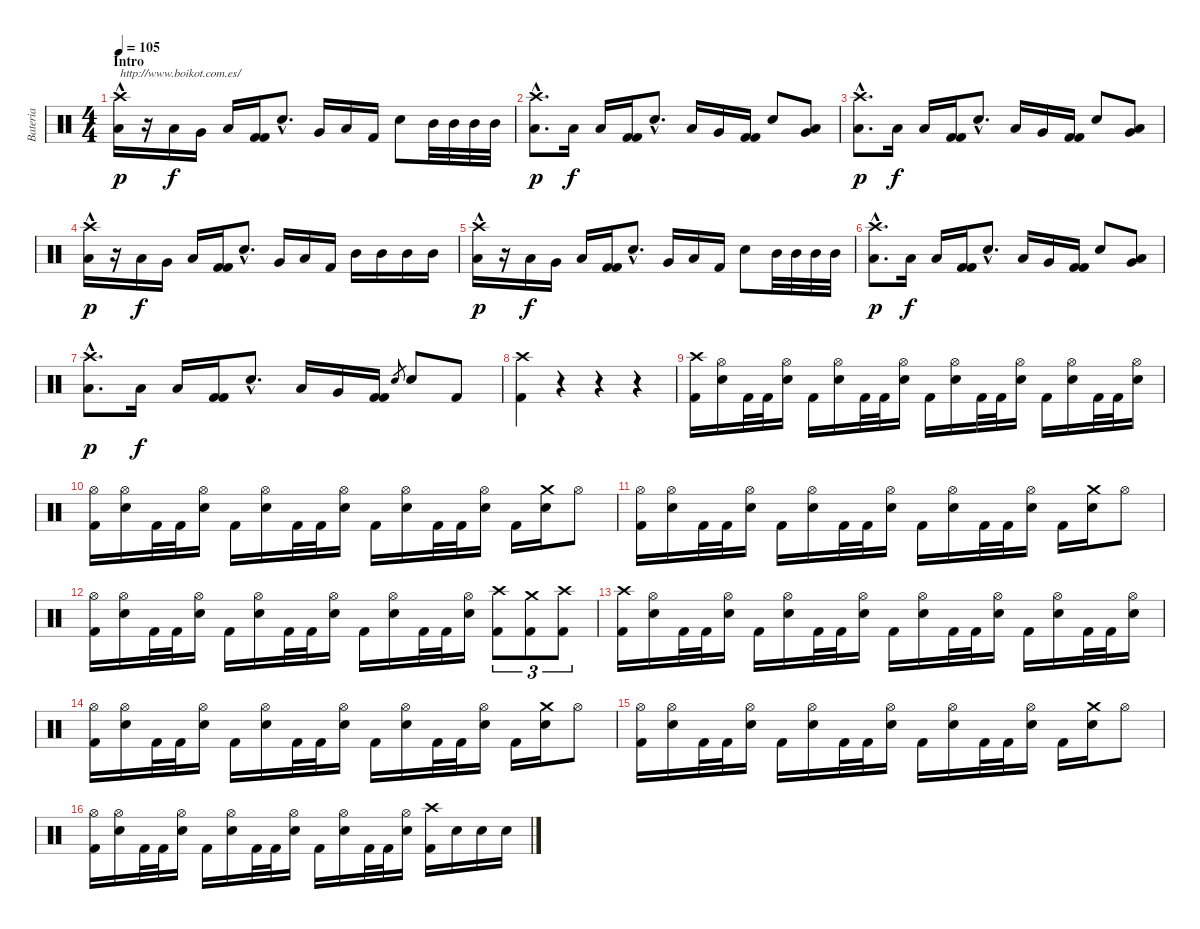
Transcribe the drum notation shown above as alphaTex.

\track ("Bateria" "Bateria") {instrument percussion}
\staff {score}
\articulation defaults
\ts (4 4)
\section ("" "Intro")
\tempo 105
\clef neutral
\ks c
("Low Floor Tom (hit)"{hac} "Crash high (hit)").16{txt "http://www.boikot.com.es/" dy p} r.16 "Low Tom (hit)".16{dy f} "Very Low Tom (hit)".16 "Low Floor Tom (hit)".16 ("Kick (hit) 2" "Kick (hit) 2").16 "Electric Snare (hit)"{hac}.8{d} "Very Low Tom (hit)".16 "Low Floor Tom (hit)".16 "Kick (hit) 2".16 "Electric Snare (hit)".8 "Mid Tom (hit)".32 "Mid Tom (hit)".32 "Mid Tom (hit)".32 "Mid Tom (hit)".32 |
("Low Floor Tom (hit)"{hac} "Crash high (hit)"{hac}).8{d dy p} "Low Tom (hit)".16{dy f} "Low Floor Tom (hit)".16 ("Kick (hit) 2" "Kick (hit) 2").16 "Electric Snare (hit)"{hac}.8{d} "Low Tom (hit)".16 "Very Low Tom (hit)".16 ("Kick (hit) 2" "Kick (hit) 2").16 "Electric Snare (hit)".8 ("Low Tom (hit)" "Very Low Tom (hit)").8 |
("Low Floor Tom (hit)"{hac} "Crash high (hit)"{hac}).8{d dy p} "Low Tom (hit)".16{dy f} "Low Floor Tom (hit)".16 ("Kick (hit) 2" "Kick (hit) 2").16 "Electric Snare (hit)"{hac}.8{d} "Low Tom (hit)".16 "Very Low Tom (hit)".16 ("Kick (hit) 2" "Kick (hit) 2").16 "Electric Snare (hit)".8 ("Very Low Tom (hit)" "Low Tom (hit)").8 |
("Low Floor Tom (hit)"{hac} "Crash high (hit)").16{dy p} r.16 "Low Tom (hit)".16{dy f} "Very Low Tom (hit)".16 "Low Floor Tom (hit)".16 ("Kick (hit) 2" "Kick (hit) 2").16 "Electric Snare (hit)"{hac}.8{d} "Very Low Tom (hit)".16 "Low Floor Tom (hit)".16 "Kick (hit) 2".16 "Mid Tom (hit)".16 "Mid Tom (hit)".16 "Mid Tom (hit)".16 "Mid Tom (hit)".16 |
("Low Floor Tom (hit)"{hac} "Crash high (hit)").16{dy p} r.16 "Low Tom (hit)".16{dy f} "Very Low Tom (hit)".16 "Low Floor Tom (hit)".16 ("Kick (hit) 2" "Kick (hit) 2").16 "Electric Snare (hit)"{hac}.8{d} "Very Low Tom (hit)".16 "Low Floor Tom (hit)".16 "Kick (hit) 2".16 "Electric Snare (hit)".8 "Mid Tom (hit)".32 "Mid Tom (hit)".32 "Mid Tom (hit)".32 "Mid Tom (hit)".32 |
("Low Floor Tom (hit)"{hac} "Crash high (hit)"{hac}).8{d dy p} "Low Tom (hit)".16{dy f} "Low Floor Tom (hit)".16 ("Kick (hit) 2" "Kick (hit) 2").16 "Electric Snare (hit)"{hac}.8{d} "Low Tom (hit)".16 "Very Low Tom (hit)".16 ("Kick (hit) 2" "Kick (hit) 2").16 "Electric Snare (hit)".8 ("Low Tom (hit)" "Very Low Tom (hit)").8 |
("Low Floor Tom (hit)"{hac} "Crash high (hit)"{hac}).8{d dy p} "Low Tom (hit)".16{dy f} "Low Floor Tom (hit)".16 ("Kick (hit) 2" "Kick (hit) 2").16 "Electric Snare (hit)"{hac}.8{d} "Low Tom (hit)".16 "Very Low Tom (hit)".16 ("Kick (hit) 2" "Kick (hit) 2").16 "Electric Snare (hit)".8{gr} "Electric Snare (hit)".8 "Kick (hit) 2".8 |
("Crash high (hit)" "Kick (hit) 2").4 r.4 r.4 r.4 |
("Crash high (hit)" "Kick (hit) 2").16 ("Hi-Hat (open)" "Electric Snare (hit)").16 "Kick (hit) 2".32 "Kick (hit) 2".32 ("Hi-Hat (open)" "Electric Snare (hit)").16 "Kick (hit) 2".16 ("Hi-Hat (open)" "Electric Snare (hit)").16 "Kick (hit) 2".32 "Kick (hit) 2".32 ("Hi-Hat (open)" "Electric Snare (hit)").16 "Kick (hit) 2".16 ("Hi-Hat (open)" "Electric Snare (hit)").16 "Kick (hit) 2".32 "Kick (hit) 2".32 ("Hi-Hat (open)" "Electric Snare (hit)").16 "Kick (hit) 2".16 ("Hi-Hat (open)" "Electric Snare (hit)").16 "Kick (hit) 2".32 "Kick (hit) 2".32 ("Hi-Hat (open)" "Electric Snare (hit)").16 |
("Hi-Hat (open)" "Kick (hit) 2").16 ("Hi-Hat (open)" "Electric Snare (hit)").16 "Kick (hit) 2".32 "Kick (hit) 2".32 ("Hi-Hat (open)" "Electric Snare (hit)").16 "Kick (hit) 2".16 ("Hi-Hat (open)" "Electric Snare (hit)").16 "Kick (hit) 2".32 "Kick (hit) 2".32 ("Hi-Hat (open)" "Electric Snare (hit)").16 "Kick (hit) 2".16 ("Hi-Hat (open)" "Electric Snare (hit)").16 "Kick (hit) 2".32 "Kick (hit) 2".32 ("Hi-Hat (open)" "Electric Snare (hit)").16 "Kick (hit) 2".16 ("Crash medium (hit)" "Electric Snare (hit)").16 "Hi-Hat (open)".8 |
("Hi-Hat (open)" "Kick (hit) 2").16 ("Hi-Hat (open)" "Electric Snare (hit)").16 "Kick (hit) 2".32 "Kick (hit) 2".32 ("Hi-Hat (open)" "Electric Snare (hit)").16 "Kick (hit) 2".16 ("Hi-Hat (open)" "Electric Snare (hit)").16 "Kick (hit) 2".32 "Kick (hit) 2".32 ("Hi-Hat (open)" "Electric Snare (hit)").16 "Kick (hit) 2".16 ("Hi-Hat (open)" "Electric Snare (hit)").16 "Kick (hit) 2".32 "Kick (hit) 2".32 ("Hi-Hat (open)" "Electric Snare (hit)").16 "Kick (hit) 2".16 ("Crash medium (hit)" "Electric Snare (hit)").16 "Hi-Hat (open)".8 |
("Hi-Hat (open)" "Kick (hit) 2").16 ("Hi-Hat (open)" "Electric Snare (hit)").16 "Kick (hit) 2".32 "Kick (hit) 2".32 ("Hi-Hat (open)" "Electric Snare (hit)").16 "Kick (hit) 2".16 ("Hi-Hat (open)" "Electric Snare (hit)").16 "Kick (hit) 2".32 "Kick (hit) 2".32 ("Hi-Hat (open)" "Electric Snare (hit)").16 "Kick (hit) 2".16 ("Hi-Hat (open)" "Electric Snare (hit)").16 "Kick (hit) 2".32 "Kick (hit) 2".32 ("Hi-Hat (open)" "Electric Snare (hit)").16 ("Kick (hit) 2" "Crash high (hit)").8{tu (3 2)} ("Kick (hit) 2" "Crash medium (hit)").8{tu (3 2)} ("Kick (hit) 2" "Crash high (hit)").8{tu (3 2)} |
("Crash high (hit)" "Kick (hit) 2").16 ("Hi-Hat (open)" "Electric Snare (hit)").16 "Kick (hit) 2".32 "Kick (hit) 2".32 ("Hi-Hat (open)" "Electric Snare (hit)").16 "Kick (hit) 2".16 ("Hi-Hat (open)" "Electric Snare (hit)").16 "Kick (hit) 2".32 "Kick (hit) 2".32 ("Hi-Hat (open)" "Electric Snare (hit)").16 "Kick (hit) 2".16 ("Hi-Hat (open)" "Electric Snare (hit)").16 "Kick (hit) 2".32 "Kick (hit) 2".32 ("Hi-Hat (open)" "Electric Snare (hit)").16 "Kick (hit) 2".16 ("Hi-Hat (open)" "Electric Snare (hit)").16 "Kick (hit) 2".32 "Kick (hit) 2".32 ("Hi-Hat (open)" "Electric Snare (hit)").16 |
("Hi-Hat (open)" "Kick (hit) 2").16 ("Hi-Hat (open)" "Electric Snare (hit)").16 "Kick (hit) 2".32 "Kick (hit) 2".32 ("Hi-Hat (open)" "Electric Snare (hit)").16 "Kick (hit) 2".16 ("Hi-Hat (open)" "Electric Snare (hit)").16 "Kick (hit) 2".32 "Kick (hit) 2".32 ("Hi-Hat (open)" "Electric Snare (hit)").16 "Kick (hit) 2".16 ("Hi-Hat (open)" "Electric Snare (hit)").16 "Kick (hit) 2".32 "Kick (hit) 2".32 ("Hi-Hat (open)" "Electric Snare (hit)").16 "Kick (hit) 2".16 ("Crash medium (hit)" "Electric Snare (hit)").16 "Hi-Hat (open)".8 |
("Hi-Hat (open)" "Kick (hit) 2").16 ("Hi-Hat (open)" "Electric Snare (hit)").16 "Kick (hit) 2".32 "Kick (hit) 2".32 ("Hi-Hat (open)" "Electric Snare (hit)").16 "Kick (hit) 2".16 ("Hi-Hat (open)" "Electric Snare (hit)").16 "Kick (hit) 2".32 "Kick (hit) 2".32 ("Hi-Hat (open)" "Electric Snare (hit)").16 "Kick (hit) 2".16 ("Hi-Hat (open)" "Electric Snare (hit)").16 "Kick (hit) 2".32 "Kick (hit) 2".32 ("Hi-Hat (open)" "Electric Snare (hit)").16 "Kick (hit) 2".16 ("Crash medium (hit)" "Electric Snare (hit)").16 "Hi-Hat (open)".8 |
("Hi-Hat (open)" "Kick (hit) 2").16 ("Hi-Hat (open)" "Electric Snare (hit)").16 "Kick (hit) 2".32 "Kick (hit) 2".32 ("Hi-Hat (open)" "Electric Snare (hit)").16 "Kick (hit) 2".16 ("Hi-Hat (open)" "Electric Snare (hit)").16 "Kick (hit) 2".32 "Kick (hit) 2".32 ("Hi-Hat (open)" "Electric Snare (hit)").16 "Kick (hit) 2".16 ("Hi-Hat (open)" "Electric Snare (hit)").16 "Kick (hit) 2".32 "Kick (hit) 2".32 ("Hi-Hat (open)" "Electric Snare (hit)").16 ("Kick (hit) 2" "Crash high (hit)").16 "Electric Snare (hit)".16 "Electric Snare (hit)".16 "Electric Snare (hit)".16
